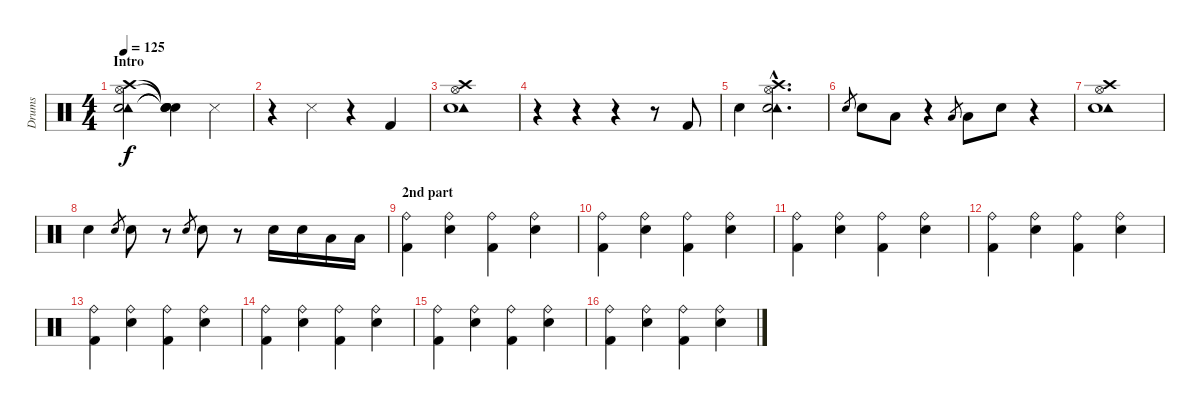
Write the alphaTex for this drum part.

\track ("Drums" "Drums") {instrument percussion}
\staff {score}
\articulation defaults
\ts (4 4)
\section ("" "Intro")
\tempo 125
\clef neutral
\ks c
("Crash high (hit)" "Hi-Hat (open)" "Tambourine (hit)" "Snare (hit) 2").2{dy f} ("Snare (hit)"{t} "Snare (hit)"{t} "Snare (hit)"{t} "Snare (hit)"{t}).4 "Snare (side stick) 3".4 |
r.4 "Snare (side stick) 3".4 r.4 "Kick (hit) 2".4 |
("Crash high (hit)" "Hi-Hat (open)" "Tambourine (hit)" "Snare (hit) 2").1 |
r.4 r.4 r.4 r.8 "Kick (hit) 2".8 |
"Snare (hit) 2".4 ("Crash high (hit)"{hac} "Hi-Hat (open)"{hac} "Tambourine (hit)"{hac} "Snare (hit) 2"{hac}).2{d} |
"Snare (hit) 2".8{gr} "Snare (hit) 2".8 "Low Floor Tom (hit)".8 r.4 "Low Floor Tom (hit)".8{gr} "Low Floor Tom (hit)".8 "Snare (hit) 2".8 r.4 |
("Crash high (hit)" "Hi-Hat (open)" "Tambourine (hit)" "Snare (hit) 2").1 |
"Snare (hit) 2".4 "Snare (hit) 2".8{gr} "Snare (hit) 2".8 r.8 "Snare (hit) 2".8{gr} "Snare (hit) 2".8 r.8 "Snare (hit) 2".16 "Snare (hit) 2".16 "Low Floor Tom (hit)".16 "Low Floor Tom (hit)".16 |
\section ("" "2nd part")
("Ride (bell)" "Kick (hit) 2").4 ("Ride (bell)" "Snare (hit) 2").4 ("Ride (bell)" "Kick (hit) 2").4 ("Ride (bell)" "Snare (hit) 2").4 |
("Ride (bell)" "Kick (hit) 2").4 ("Ride (bell)" "Snare (hit) 2").4 ("Ride (bell)" "Kick (hit) 2").4 ("Ride (bell)" "Snare (hit) 2").4 |
("Ride (bell)" "Kick (hit) 2").4 ("Ride (bell)" "Snare (hit) 2").4 ("Ride (bell)" "Kick (hit) 2").4 ("Ride (bell)" "Snare (hit) 2").4 |
("Ride (bell)" "Kick (hit) 2").4 ("Ride (bell)" "Snare (hit) 2").4 ("Ride (bell)" "Kick (hit) 2").4 ("Ride (bell)" "Snare (hit) 2").4 |
("Ride (bell)" "Kick (hit) 2").4 ("Ride (bell)" "Snare (hit) 2").4 ("Ride (bell)" "Kick (hit) 2").4 ("Ride (bell)" "Snare (hit) 2").4 |
("Ride (bell)" "Kick (hit) 2").4 ("Ride (bell)" "Snare (hit) 2").4 ("Ride (bell)" "Kick (hit) 2").4 ("Ride (bell)" "Snare (hit) 2").4 |
("Ride (bell)" "Kick (hit) 2").4 ("Ride (bell)" "Snare (hit) 2").4 ("Ride (bell)" "Kick (hit) 2").4 ("Ride (bell)" "Snare (hit) 2").4 |
("Ride (bell)" "Kick (hit) 2").4 ("Ride (bell)" "Snare (hit) 2").4 ("Ride (bell)" "Kick (hit) 2").4 ("Ride (bell)" "Snare (hit) 2").4
